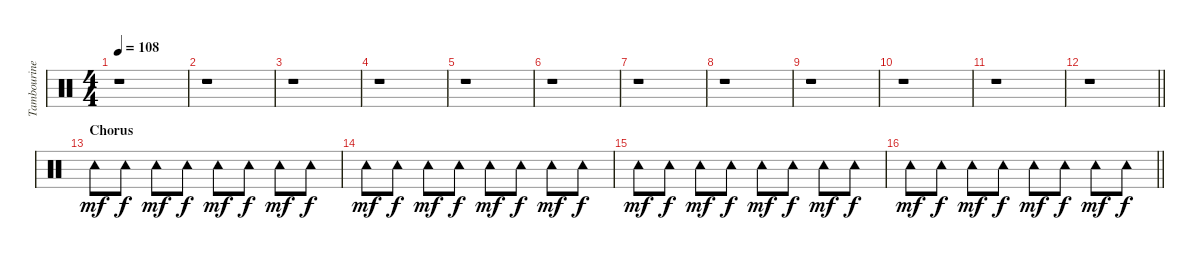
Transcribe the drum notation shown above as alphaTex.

\track ("Tambourine" "Tambourine") {instrument percussion}
\staff {score}
\articulation defaults
\ts (4 4)
\tempo 108
\clef neutral
\ks c
r.1{dy f} |
r.1 |
r.1 |
r.1 |
r.1 |
r.1 |
r.1 |
r.1 |
r.1 |
r.1 |
r.1 |
\barLineRight lightlight
r.1 |
\section ("" "Chorus")
"Tambourine (hit)".8{dy mf} "Tambourine (hit)".8{dy f} "Tambourine (hit)".8{dy mf} "Tambourine (hit)".8{dy f} "Tambourine (hit)".8{dy mf} "Tambourine (hit)".8{dy f} "Tambourine (hit)".8{dy mf} "Tambourine (hit)".8{dy f} |
"Tambourine (hit)".8{dy mf} "Tambourine (hit)".8{dy f} "Tambourine (hit)".8{dy mf} "Tambourine (hit)".8{dy f} "Tambourine (hit)".8{dy mf} "Tambourine (hit)".8{dy f} "Tambourine (hit)".8{dy mf} "Tambourine (hit)".8{dy f} |
"Tambourine (hit)".8{dy mf} "Tambourine (hit)".8{dy f} "Tambourine (hit)".8{dy mf} "Tambourine (hit)".8{dy f} "Tambourine (hit)".8{dy mf} "Tambourine (hit)".8{dy f} "Tambourine (hit)".8{dy mf} "Tambourine (hit)".8{dy f} |
\barLineRight lightlight "Tambourine (hit)".8{dy mf} "Tambourine (hit)".8{dy f} "Tambourine (hit)".8{dy mf} "Tambourine (hit)".8{dy f} "Tambourine (hit)".8{dy mf} "Tambourine (hit)".8{dy f} "Tambourine (hit)".8{dy mf} "Tambourine (hit)".8{dy f}
